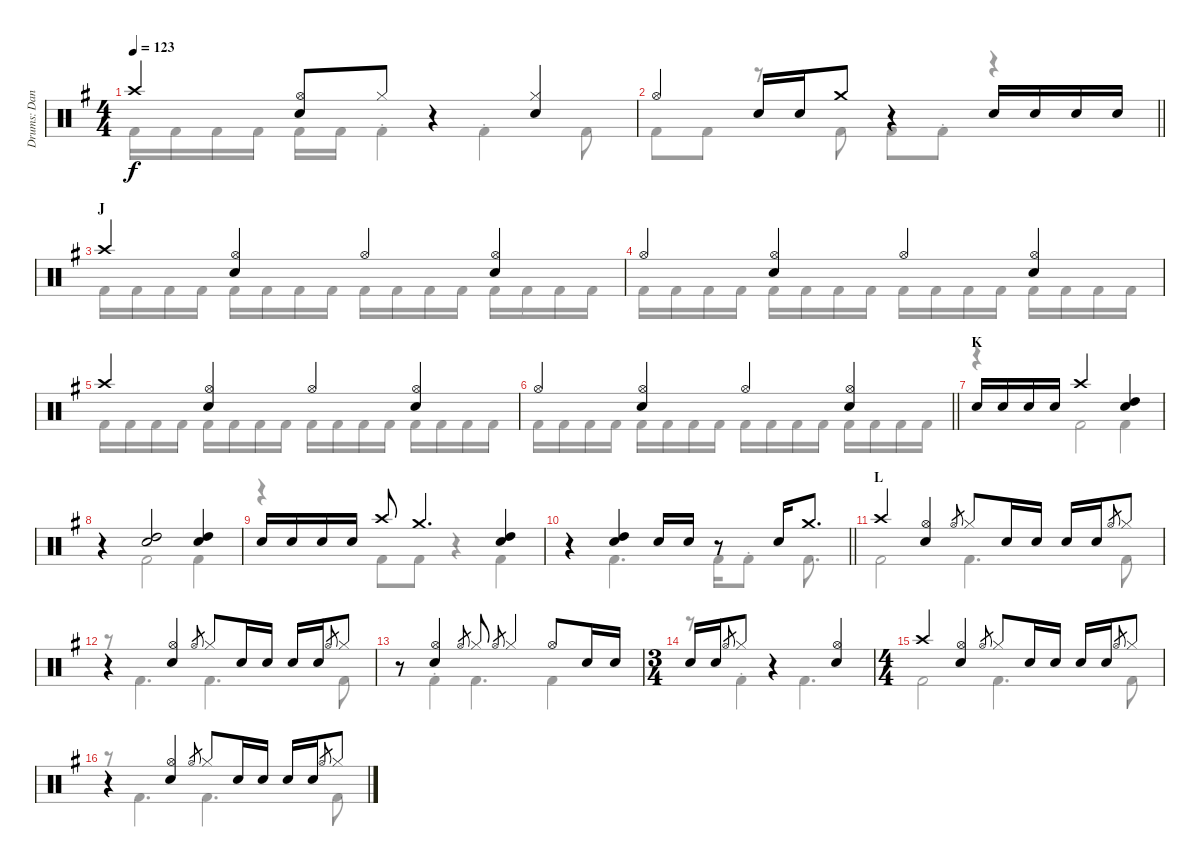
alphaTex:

\track ("Drums: Dana" "Drums: Dan") {instrument percussion}
\staff {score}
\articulation defaults
\voice
\ts (4 4)
\tempo 123
\clef neutral
\ks g "Crash high (hit)".4{dy f}
("Hi-Hat (open)" "Snare (hit) 2").8 "Hi-Hat (closed)".8 r.4 ("Hi-Hat (closed)" "Snare (hit) 2").4 |
\barLineRight lightlight "Hi-Hat (open)".4 "Snare (hit) 2".16 "Snare (hit) 2".16 "Crash medium (hit)".8
r.4 "Snare (hit) 2".16 "Snare (hit) 2".16 "Snare (hit) 2".16 "Snare (hit) 2".16 |
\section ("" "J")
"Crash high (hit)".4 ("Hi-Hat (open)" "Snare (hit) 2").4 "Hi-Hat (open)".4 ("Hi-Hat (open)" "Snare (hit) 2").4 |
"Hi-Hat (open)".4 ("Hi-Hat (open)" "Snare (hit) 2").4 "Hi-Hat (open)".4 ("Hi-Hat (open)" "Snare (hit) 2").4 |
"Crash high (hit)".4 ("Hi-Hat (open)" "Snare (hit) 2").4 "Hi-Hat (open)".4 ("Hi-Hat (open)" "Snare (hit) 2").4 |
\barLineRight lightlight "Hi-Hat (open)".4
("Hi-Hat (open)" "Snare (hit) 2").4 "Hi-Hat (open)".4 ("Hi-Hat (open)" "Snare (hit) 2").4 |
\section ("" "K")
"Snare (hit) 2".16 "Snare (hit) 2".16 "Snare (hit) 2".16 "Snare (hit) 2".16 "Crash high (hit)".2 ("Snare (hit) 2" "High Tom (hit)").4 |
r.4 ("Snare (hit) 2" "High Tom (hit)").2 ("Snare (hit) 2" "High Tom (hit)").4 |
"Snare (hit) 2".16 "Snare (hit) 2".16 "Snare (hit) 2".16 "Snare (hit) 2".16 "Crash high (hit)".8 "Crash medium (hit)".4{d} ("Snare (hit) 2" "High Tom (hit)").4 |
\barLineRight lightlight
r.4 ("Snare (hit) 2" "High Tom (hit)").4 "Electric Snare (hit)".16 "Electric Snare (hit)".16 r.8 "Snare (hit) 2".16 "Crash medium (hit)".8{d} |
\section ("" "L")
"Crash high (hit)".4 ("Hi-Hat (open)" "Snare (hit) 2").4 "Hi-Hat (open)".8{gr} "Hi-Hat (closed)".8 "Snare (hit) 2".16 "Snare (hit) 2".16 "Snare (hit) 2".16 "Snare (hit) 2".16 "Hi-Hat (open)".8{gr} "Hi-Hat (closed)".8 |
r.4 ("Hi-Hat (open)" "Snare (hit) 2").4 "Hi-Hat (open)".8{gr} "Hi-Hat (closed)".8 "Snare (hit) 2".16 "Snare (hit) 2".16 "Snare (hit) 2".16 "Snare (hit) 2".16 "Hi-Hat (open)".8{gr} "Hi-Hat (closed)".8 |
r.8 ("Hi-Hat (open)" "Snare (hit) 2").4 "Hi-Hat (open)".8{gr} "Hi-Hat (closed)".8 "Hi-Hat (open)".8{gr} "Hi-Hat (closed)".4 "Hi-Hat (open)".8 "Snare (hit) 2".16 "Snare (hit) 2".16 |
\ts (3 4)
"Snare (hit) 2".16 "Snare (hit) 2".16 "Hi-Hat (open)".8{gr} "Hi-Hat (closed)".8 r.4 ("Hi-Hat (open)" "Snare (hit) 2").4 |
\ts (4 4)
"Crash high (hit)".4 ("Hi-Hat (open)" "Snare (hit) 2").4 "Hi-Hat (open)".8{gr} "Hi-Hat (closed)".8 "Snare (hit) 2".16 "Snare (hit) 2".16 "Snare (hit) 2".16 "Snare (hit) 2".16 "Hi-Hat (open)".8{gr} "Hi-Hat (closed)".8 |
r.4 ("Hi-Hat (open)" "Snare (hit) 2").4 "Hi-Hat (open)".8{gr} "Hi-Hat (closed)".8 "Snare (hit) 2".16 "Snare (hit) 2".16 "Snare (hit) 2".16 "Snare (hit) 2".16 "Hi-Hat (open)".8{gr} "Hi-Hat (closed)".8
\voice
\clef neutral
\ottava regular
\simile none
\ks g "Kick (hit) 2".16{dy f} "Kick (hit) 2".16 "Kick (hit) 2".16 "Kick (hit) 2".16 "Kick (hit) 2".16 "Kick (hit) 2".16 "Kick (hit) 2"{st}.4 "Kick (hit) 2"{st}.4 "Kick (hit) 2".8
|
\barLineRight lightlight "Kick (hit) 2".8 "Kick (hit) 2".8
r.8 "Kick (hit) 2".8 "Kick (hit) 2".8 "Kick (hit) 2"{st}.8 r.4 |
"Kick (hit) 2".16 "Kick (hit) 2".16 "Kick (hit) 2".16 "Kick (hit) 2".16 "Kick (hit) 2".16 "Kick (hit) 2".16 "Kick (hit) 2".16 "Kick (hit) 2".16 "Kick (hit) 2".16 "Kick (hit) 2".16 "Kick (hit) 2".16 "Kick (hit) 2".16 "Kick (hit) 2".16 "Kick (hit) 2".16 "Kick (hit) 2".16 "Kick (hit) 2".16 |
"Kick (hit) 2".16 "Kick (hit) 2".16 "Kick (hit) 2".16 "Kick (hit) 2".16 "Kick (hit) 2".16 "Kick (hit) 2".16 "Kick (hit) 2".16 "Kick (hit) 2".16 "Kick (hit) 2".16 "Kick (hit) 2".16 "Kick (hit) 2".16 "Kick (hit) 2".16 "Kick (hit) 2".16 "Kick (hit) 2".16 "Kick (hit) 2".16 "Kick (hit) 2".16 |
"Kick (hit) 2".16 "Kick (hit) 2".16 "Kick (hit) 2".16 "Kick (hit) 2".16 "Kick (hit) 2".16 "Kick (hit) 2".16 "Kick (hit) 2".16 "Kick (hit) 2".16 "Kick (hit) 2".16 "Kick (hit) 2".16 "Kick (hit) 2".16 "Kick (hit) 2".16 "Kick (hit) 2".16 "Kick (hit) 2".16 "Kick (hit) 2".16 "Kick (hit) 2".16 |
\barLineRight lightlight "Kick (hit) 2".16 "Kick (hit) 2".16 "Kick (hit) 2".16 "Kick (hit) 2".16 "Kick (hit) 2".16 "Kick (hit) 2".16 "Kick (hit) 2".16 "Kick (hit) 2".16 "Kick (hit) 2".16 "Kick (hit) 2".16 "Kick (hit) 2".16 "Kick (hit) 2".16 "Kick (hit) 2".16 "Kick (hit) 2".16 "Kick (hit) 2".16 "Kick (hit) 2".16
|
r.4 "Kick (hit) 2".2 "Kick (hit) 2".4 |
r.4 "Kick (hit) 2".2 "Kick (hit) 2".4 |
r.4 "Kick (hit) 2".8 "Kick (hit) 2".8 r.4 "Kick (hit) 2".4 |
\barLineRight lightlight
r.4 "Kick (hit) 2".4{d} "Kick (hit) 2".16 "Kick (hit) 2"{st}.8 "Kick (hit) 2".8{d} |
"Kick (hit) 2".2 "Kick (hit) 2".4{d} "Kick (hit) 2".8 |
r.8 "Kick (hit) 2".4{d} "Kick (hit) 2".4{d} "Kick (hit) 2".8 |
r.8 "Kick (hit) 2"{st}.4 "Kick (hit) 2".4{d} "Kick (hit) 2".4 |
r.8 "Kick (hit) 2"{st}.4 "Kick (hit) 2".4{d} |
"Kick (hit) 2".2 "Kick (hit) 2".4{d} "Kick (hit) 2".8 |
r.8 "Kick (hit) 2".4{d} "Kick (hit) 2".4{d} "Kick (hit) 2".8
